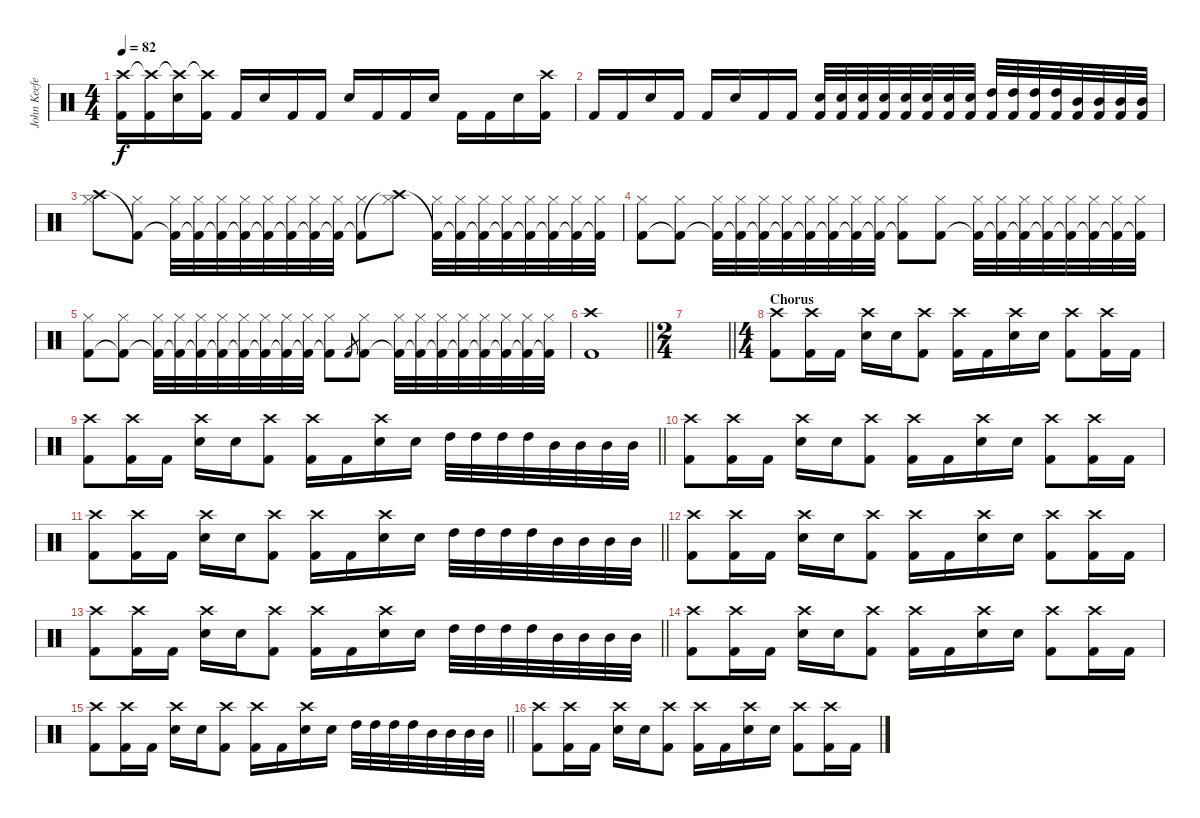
\track ("John Keefe (Percussion)" "John Keefe") {instrument percussion}
\staff {score}
\articulation defaults
\ts (4 4)
\tempo 82
\clef neutral
\ks c
("Crash high (hit)" "Kick (hit) 2").16{dy f} ("Crash high (hit)"{t} "Kick (hit) 2").16 ("Crash high (hit)"{t} "Snare (hit) 2").16 ("Crash high (hit)"{t} "Kick (hit) 2").16 "Kick (hit) 2".16 "Snare (hit) 2".16 "Kick (hit) 2".16 "Kick (hit) 2".16 "Snare (hit) 2".16 "Kick (hit) 2".16 "Kick (hit) 2".16 "Snare (hit) 2".16 "Kick (hit) 2".16 "Kick (hit) 2".16 "Snare (hit) 2".16 ("Crash high (hit)" "Kick (hit) 2").16 |
"Kick (hit) 2".16 "Kick (hit) 2".16 "Snare (hit) 2".16 "Kick (hit) 2".16 "Kick (hit) 2".16 "Snare (hit) 2".16 "Kick (hit) 2".16 "Kick (hit) 2".16 ("Kick (hit) 2" "Snare (hit) 2").32 ("Kick (hit) 2" "Snare (hit) 2").32 ("Kick (hit) 2" "Snare (hit) 2").32 ("Kick (hit) 2" "Snare (hit) 2").32 ("Kick (hit) 2" "Snare (hit) 2").32 ("Kick (hit) 2" "Snare (hit) 2").32 ("Kick (hit) 2" "Snare (hit) 2").32 ("Kick (hit) 2" "Snare (hit) 2").32 ("Kick (hit) 2" "High Tom (hit)").32 ("Kick (hit) 2" "High Tom (hit)").32 ("Kick (hit) 2" "High Tom (hit)").32 ("Kick (hit) 2" "High Tom (hit)").32 ("Kick (hit) 2" "Mid Tom (hit)").32 ("Kick (hit) 2" "Mid Tom (hit)").32 ("Kick (hit) 2" "Mid Tom (hit)").32 ("Kick (hit) 2" "Mid Tom (hit)").32 |
("Hi-Hat (closed)" "Crash high (hit)").8 ("Hi-Hat (closed)" "Kick (hit) 2"{t}).8 ("Hi-Hat (closed)" "Kick (hit) 2"{t}).32 ("Hi-Hat (closed)" "Kick (hit) 2"{t}).32 ("Hi-Hat (closed)" "Kick (hit) 2"{t}).32 ("Hi-Hat (closed)" "Kick (hit) 2"{t}).32 ("Hi-Hat (closed)" "Kick (hit) 2"{t}).32 ("Hi-Hat (closed)" "Kick (hit) 2"{t}).32 ("Hi-Hat (closed)" "Kick (hit) 2"{t}).32 ("Hi-Hat (closed)" "Kick (hit) 2"{t}).32 ("Hi-Hat (closed)" "Kick (hit) 2"{t}).8 ("Hi-Hat (closed)" "Crash high (hit)"{t}).8 ("Hi-Hat (closed)" "Kick (hit) 2"{t}).32 ("Hi-Hat (closed)" "Kick (hit) 2"{t}).32 ("Hi-Hat (closed)" "Kick (hit) 2"{t}).32 ("Hi-Hat (closed)" "Kick (hit) 2"{t}).32 ("Hi-Hat (closed)" "Kick (hit) 2"{t}).32 ("Hi-Hat (closed)" "Kick (hit) 2"{t}).32 ("Hi-Hat (closed)" "Kick (hit) 2"{t}).32 ("Hi-Hat (closed)" "Kick (hit) 2"{t}).32 |
("Hi-Hat (closed)" "Kick (hit) 2").8 ("Hi-Hat (closed)" "Kick (hit) 2"{t}).8 ("Hi-Hat (closed)" "Kick (hit) 2"{t}).32 ("Hi-Hat (closed)" "Kick (hit) 2"{t}).32 ("Hi-Hat (closed)" "Kick (hit) 2"{t}).32 ("Hi-Hat (closed)" "Kick (hit) 2"{t}).32 ("Hi-Hat (closed)" "Kick (hit) 2"{t}).32 ("Hi-Hat (closed)" "Kick (hit) 2"{t}).32 ("Hi-Hat (closed)" "Kick (hit) 2"{t}).32 ("Hi-Hat (closed)" "Kick (hit) 2"{t}).32 ("Hi-Hat (closed)" "Kick (hit) 2"{t}).8 ("Hi-Hat (closed)" "Kick (hit) 2").8 ("Hi-Hat (closed)" "Kick (hit) 2"{t}).32 ("Hi-Hat (closed)" "Kick (hit) 2"{t}).32 ("Hi-Hat (closed)" "Kick (hit) 2"{t}).32 ("Hi-Hat (closed)" "Kick (hit) 2"{t}).32 ("Hi-Hat (closed)" "Kick (hit) 2"{t}).32 ("Hi-Hat (closed)" "Kick (hit) 2"{t}).32 ("Hi-Hat (closed)" "Kick (hit) 2"{t}).32 ("Hi-Hat (closed)" "Kick (hit) 2"{t}).32 |
("Hi-Hat (closed)" "Kick (hit) 2").8 ("Hi-Hat (closed)" "Kick (hit) 2"{t}).8 ("Hi-Hat (closed)" "Kick (hit) 2"{t}).32 ("Hi-Hat (closed)" "Kick (hit) 2"{t}).32 ("Hi-Hat (closed)" "Kick (hit) 2"{t}).32 ("Hi-Hat (closed)" "Kick (hit) 2"{t}).32 ("Hi-Hat (closed)" "Kick (hit) 2"{t}).32 ("Hi-Hat (closed)" "Kick (hit) 2"{t}).32 ("Hi-Hat (closed)" "Kick (hit) 2"{t}).32 ("Hi-Hat (closed)" "Kick (hit) 2"{t}).32 ("Hi-Hat (closed)" "Kick (hit) 2"{t}).8 "Kick (hit) 2".8{gr} ("Hi-Hat (closed)" "Kick (hit) 2").8 ("Hi-Hat (closed)" "Kick (hit) 2"{t}).32 ("Hi-Hat (closed)" "Kick (hit) 2"{t}).32 ("Hi-Hat (closed)" "Kick (hit) 2"{t}).32 ("Hi-Hat (closed)" "Kick (hit) 2"{t}).32 ("Hi-Hat (closed)" "Kick (hit) 2"{t}).32 ("Hi-Hat (closed)" "Kick (hit) 2"{t}).32 ("Hi-Hat (closed)" "Kick (hit) 2"{t}).32 ("Hi-Hat (closed)" "Kick (hit) 2"{t}).32 |
\barLineRight lightlight
("Crash high (hit)" "Kick (hit) 2").1 |
\ts (2 4)
\barLineRight lightlight
|
\ts (4 4)
\section ("" "Chorus")
("Crash high (hit)" "Kick (hit) 2").8 ("Crash high (hit)" "Kick (hit) 2").16 "Kick (hit) 2".16 ("Crash high (hit)" "Snare (hit) 2").16 "Snare (hit) 2".16 ("Crash high (hit)" "Kick (hit) 2").8 ("Crash high (hit)" "Kick (hit) 2").16 "Kick (hit) 2".16 ("Crash high (hit)" "Snare (hit) 2").16 "Snare (hit) 2".16 ("Crash high (hit)" "Kick (hit) 2").8 ("Crash high (hit)" "Kick (hit) 2").16 "Kick (hit) 2".16 |
\barLineRight lightlight
("Crash high (hit)" "Kick (hit) 2").8 ("Crash high (hit)" "Kick (hit) 2").16 "Kick (hit) 2".16 ("Crash high (hit)" "Snare (hit) 2").16 "Snare (hit) 2".16 ("Crash high (hit)" "Kick (hit) 2").8 ("Crash high (hit)" "Kick (hit) 2").16 "Kick (hit) 2".16 ("Crash high (hit)" "Snare (hit) 2").16 "Snare (hit) 2".16 "High Tom (hit)".32 "High Tom (hit)".32 "High Tom (hit)".32 "High Tom (hit)".32 "Mid Tom (hit)".32 "Mid Tom (hit)".32 "Mid Tom (hit)".32 "Mid Tom (hit)".32 |
("Crash high (hit)" "Kick (hit) 2").8 ("Crash high (hit)" "Kick (hit) 2").16 "Kick (hit) 2".16 ("Crash high (hit)" "Snare (hit) 2").16 "Snare (hit) 2".16 ("Crash high (hit)" "Kick (hit) 2").8 ("Crash high (hit)" "Kick (hit) 2").16 "Kick (hit) 2".16 ("Crash high (hit)" "Snare (hit) 2").16 "Snare (hit) 2".16 ("Crash high (hit)" "Kick (hit) 2").8 ("Crash high (hit)" "Kick (hit) 2").16 "Kick (hit) 2".16 |
\barLineRight lightlight
("Crash high (hit)" "Kick (hit) 2").8 ("Crash high (hit)" "Kick (hit) 2").16 "Kick (hit) 2".16 ("Crash high (hit)" "Snare (hit) 2").16 "Snare (hit) 2".16 ("Crash high (hit)" "Kick (hit) 2").8 ("Crash high (hit)" "Kick (hit) 2").16 "Kick (hit) 2".16 ("Crash high (hit)" "Snare (hit) 2").16 "Snare (hit) 2".16 "High Tom (hit)".32 "High Tom (hit)".32 "High Tom (hit)".32 "High Tom (hit)".32 "Mid Tom (hit)".32 "Mid Tom (hit)".32 "Mid Tom (hit)".32 "Mid Tom (hit)".32 |
("Crash high (hit)" "Kick (hit) 2").8 ("Crash high (hit)" "Kick (hit) 2").16 "Kick (hit) 2".16 ("Crash high (hit)" "Snare (hit) 2").16 "Snare (hit) 2".16 ("Crash high (hit)" "Kick (hit) 2").8 ("Crash high (hit)" "Kick (hit) 2").16 "Kick (hit) 2".16 ("Crash high (hit)" "Snare (hit) 2").16 "Snare (hit) 2".16 ("Crash high (hit)" "Kick (hit) 2").8 ("Crash high (hit)" "Kick (hit) 2").16 "Kick (hit) 2".16 |
\barLineRight lightlight
("Crash high (hit)" "Kick (hit) 2").8 ("Crash high (hit)" "Kick (hit) 2").16 "Kick (hit) 2".16 ("Crash high (hit)" "Snare (hit) 2").16 "Snare (hit) 2".16 ("Crash high (hit)" "Kick (hit) 2").8 ("Crash high (hit)" "Kick (hit) 2").16 "Kick (hit) 2".16 ("Crash high (hit)" "Snare (hit) 2").16 "Snare (hit) 2".16 "High Tom (hit)".32 "High Tom (hit)".32 "High Tom (hit)".32 "High Tom (hit)".32 "Mid Tom (hit)".32 "Mid Tom (hit)".32 "Mid Tom (hit)".32 "Mid Tom (hit)".32 |
("Crash high (hit)" "Kick (hit) 2").8 ("Crash high (hit)" "Kick (hit) 2").16 "Kick (hit) 2".16 ("Crash high (hit)" "Snare (hit) 2").16 "Snare (hit) 2".16 ("Crash high (hit)" "Kick (hit) 2").8 ("Crash high (hit)" "Kick (hit) 2").16 "Kick (hit) 2".16 ("Crash high (hit)" "Snare (hit) 2").16 "Snare (hit) 2".16 ("Crash high (hit)" "Kick (hit) 2").8 ("Crash high (hit)" "Kick (hit) 2").16 "Kick (hit) 2".16 |
\barLineRight lightlight
("Crash high (hit)" "Kick (hit) 2").8 ("Crash high (hit)" "Kick (hit) 2").16 "Kick (hit) 2".16 ("Crash high (hit)" "Snare (hit) 2").16 "Snare (hit) 2".16 ("Crash high (hit)" "Kick (hit) 2").8 ("Crash high (hit)" "Kick (hit) 2").16 "Kick (hit) 2".16 ("Crash high (hit)" "Snare (hit) 2").16 "Snare (hit) 2".16 "High Tom (hit)".32 "High Tom (hit)".32 "High Tom (hit)".32 "High Tom (hit)".32 "Mid Tom (hit)".32 "Mid Tom (hit)".32 "Mid Tom (hit)".32 "Mid Tom (hit)".32 |
("Crash high (hit)" "Kick (hit) 2").8 ("Crash high (hit)" "Kick (hit) 2").16 "Kick (hit) 2".16 ("Crash high (hit)" "Snare (hit) 2").16 "Snare (hit) 2".16 ("Crash high (hit)" "Kick (hit) 2").8 ("Crash high (hit)" "Kick (hit) 2").16 "Kick (hit) 2".16 ("Crash high (hit)" "Snare (hit) 2").16 "Snare (hit) 2".16 ("Crash high (hit)" "Kick (hit) 2").8 ("Crash high (hit)" "Kick (hit) 2").16 "Kick (hit) 2".16
